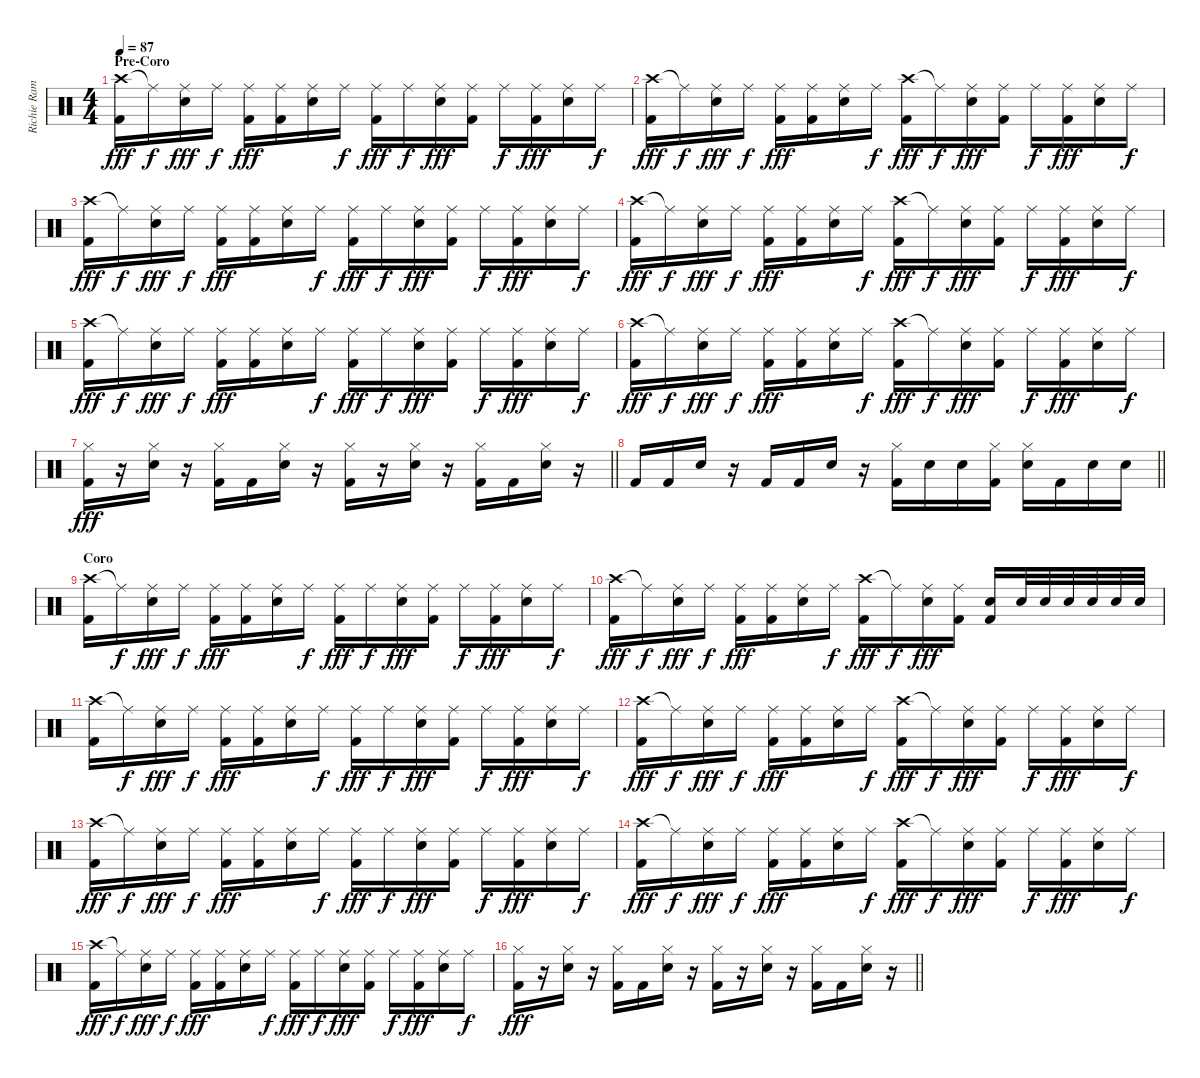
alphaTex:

\track ("Richie Ramone " "Richie Ram") {instrument percussion}
\staff {score}
\articulation defaults
\ts (4 4)
\section ("" "Pre-Coro")
\tempo 87
\clef neutral
\ks c
("Crash high (hit)" "Kick (hit) 2").16{dy fff} "Ride (middle)"{t}.16{dy f} ("Ride (middle)" "Electric Snare (hit)").16{dy fff} "Ride (middle)".16{dy f} ("Ride (middle)" "Kick (hit) 2").16{dy fff} ("Ride (middle)" "Kick (hit) 2").16 ("Ride (middle)" "Electric Snare (hit)").16 "Ride (middle)".16{dy f} ("Ride (middle)" "Kick (hit) 2").16{dy fff} "Ride (middle)".16{dy f} ("Ride (middle)" "Electric Snare (hit)").16{dy fff} ("Ride (middle)" "Kick (hit) 2").16 "Ride (middle)".16{dy f} ("Ride (middle)" "Kick (hit) 2").16{dy fff} ("Ride (middle)" "Electric Snare (hit)").16 "Ride (middle)".16{dy f} |
("Crash high (hit)" "Kick (hit) 2").16{dy fff} "Ride (middle)"{t}.16{dy f} ("Ride (middle)" "Electric Snare (hit)").16{dy fff} "Ride (middle)".16{dy f} ("Ride (middle)" "Kick (hit) 2").16{dy fff} ("Ride (middle)" "Kick (hit) 2").16 ("Ride (middle)" "Electric Snare (hit)").16 "Ride (middle)".16{dy f} ("Crash high (hit)" "Kick (hit) 2").16{dy fff} "Ride (middle)"{t}.16{dy f} ("Ride (middle)" "Electric Snare (hit)").16{dy fff} ("Ride (middle)" "Kick (hit) 2").16 "Ride (middle)".16{dy f} ("Ride (middle)" "Kick (hit) 2").16{dy fff} ("Ride (middle)" "Electric Snare (hit)").16 "Ride (middle)".16{dy f} |
("Crash high (hit)" "Kick (hit) 2").16{dy fff} "Ride (middle)"{t}.16{dy f} ("Ride (middle)" "Electric Snare (hit)").16{dy fff} "Ride (middle)".16{dy f} ("Ride (middle)" "Kick (hit) 2").16{dy fff} ("Ride (middle)" "Kick (hit) 2").16 ("Ride (middle)" "Electric Snare (hit)").16 "Ride (middle)".16{dy f} ("Ride (middle)" "Kick (hit) 2").16{dy fff} "Ride (middle)".16{dy f} ("Ride (middle)" "Electric Snare (hit)").16{dy fff} ("Ride (middle)" "Kick (hit) 2").16 "Ride (middle)".16{dy f} ("Ride (middle)" "Kick (hit) 2").16{dy fff} ("Ride (middle)" "Electric Snare (hit)").16 "Ride (middle)".16{dy f} |
("Crash high (hit)" "Kick (hit) 2").16{dy fff} "Ride (middle)"{t}.16{dy f} ("Ride (middle)" "Electric Snare (hit)").16{dy fff} "Ride (middle)".16{dy f} ("Ride (middle)" "Kick (hit) 2").16{dy fff} ("Ride (middle)" "Kick (hit) 2").16 ("Ride (middle)" "Electric Snare (hit)").16 "Ride (middle)".16{dy f} ("Crash high (hit)" "Kick (hit) 2").16{dy fff} "Ride (middle)"{t}.16{dy f} ("Ride (middle)" "Electric Snare (hit)").16{dy fff} ("Ride (middle)" "Kick (hit) 2").16 "Ride (middle)".16{dy f} ("Ride (middle)" "Kick (hit) 2").16{dy fff} ("Ride (middle)" "Electric Snare (hit)").16 "Ride (middle)".16{dy f} |
("Crash high (hit)" "Kick (hit) 2").16{dy fff} "Ride (middle)"{t}.16{dy f} ("Ride (middle)" "Electric Snare (hit)").16{dy fff} "Ride (middle)".16{dy f} ("Ride (middle)" "Kick (hit) 2").16{dy fff} ("Ride (middle)" "Kick (hit) 2").16 ("Ride (middle)" "Electric Snare (hit)").16 "Ride (middle)".16{dy f} ("Ride (middle)" "Kick (hit) 2").16{dy fff} "Ride (middle)".16{dy f} ("Ride (middle)" "Electric Snare (hit)").16{dy fff} ("Ride (middle)" "Kick (hit) 2").16 "Ride (middle)".16{dy f} ("Ride (middle)" "Kick (hit) 2").16{dy fff} ("Ride (middle)" "Electric Snare (hit)").16 "Ride (middle)".16{dy f} |
("Crash high (hit)" "Kick (hit) 2").16{dy fff} "Ride (middle)"{t}.16{dy f} ("Ride (middle)" "Electric Snare (hit)").16{dy fff} "Ride (middle)".16{dy f} ("Ride (middle)" "Kick (hit) 2").16{dy fff} ("Ride (middle)" "Kick (hit) 2").16 ("Ride (middle)" "Electric Snare (hit)").16 "Ride (middle)".16{dy f} ("Crash high (hit)" "Kick (hit) 2").16{dy fff} "Ride (middle)"{t}.16{dy f} ("Ride (middle)" "Electric Snare (hit)").16{dy fff} ("Ride (middle)" "Kick (hit) 2").16 "Ride (middle)".16{dy f} ("Ride (middle)" "Kick (hit) 2").16{dy fff} ("Ride (middle)" "Electric Snare (hit)").16 "Ride (middle)".16{dy f} |
\barLineRight lightlight
("Hi-Hat (closed)" "Kick (hit) 2").16{dy fff} r.16 ("Hi-Hat (closed)" "Electric Snare (hit)").16 r.16 ("Hi-Hat (closed)" "Kick (hit) 2").16 "Kick (hit) 2".16 ("Hi-Hat (closed)" "Electric Snare (hit)").16 r.16 ("Hi-Hat (closed)" "Kick (hit) 2").16 r.16 ("Hi-Hat (closed)" "Electric Snare (hit)").16 r.16 ("Hi-Hat (closed)" "Kick (hit) 2").16 "Kick (hit) 2".16 ("Hi-Hat (closed)" "Electric Snare (hit)").16 r.16 |
\barLineRight lightlight "Kick (hit) 2".16 "Kick (hit) 2".16 "Electric Snare (hit)".16
r.16 "Kick (hit) 2".16 "Kick (hit) 2".16 "Electric Snare (hit)".16 r.16 ("Hi-Hat (closed)" "Kick (hit) 2").16 "Electric Snare (hit)".16 "Electric Snare (hit)".16 ("Hi-Hat (closed)" "Kick (hit) 2").16 ("Hi-Hat (closed)" "Electric Snare (hit)").16 "Kick (hit) 2".16 "Electric Snare (hit)".16 "Electric Snare (hit)".16 |
\section ("" "Coro")
("Crash high (hit)" "Kick (hit) 2").16 "Ride (middle)"{t}.16{dy f} ("Ride (middle)" "Electric Snare (hit)").16{dy fff} "Ride (middle)".16{dy f} ("Ride (middle)" "Kick (hit) 2").16{dy fff} ("Ride (middle)" "Kick (hit) 2").16 ("Ride (middle)" "Electric Snare (hit)").16 "Ride (middle)".16{dy f} ("Ride (middle)" "Kick (hit) 2").16{dy fff} "Ride (middle)".16{dy f} ("Ride (middle)" "Electric Snare (hit)").16{dy fff} ("Ride (middle)" "Kick (hit) 2").16 "Ride (middle)".16{dy f} ("Ride (middle)" "Kick (hit) 2").16{dy fff} ("Ride (middle)" "Electric Snare (hit)").16 "Ride (middle)".16{dy f} |
("Crash high (hit)" "Kick (hit) 2").16{dy fff} "Ride (middle)"{t}.16{dy f} ("Ride (middle)" "Electric Snare (hit)").16{dy fff} "Ride (middle)".16{dy f} ("Ride (middle)" "Kick (hit) 2").16{dy fff} ("Ride (middle)" "Kick (hit) 2").16 ("Ride (middle)" "Electric Snare (hit)").16 "Ride (middle)".16{dy f} ("Crash high (hit)" "Kick (hit) 2").16{dy fff} "Ride (middle)"{t}.16{dy f} ("Ride (middle)" "Electric Snare (hit)").16{dy fff} ("Ride (middle)" "Kick (hit) 2").16 ("Electric Snare (hit)" "Kick (hit) 2").16 "Electric Snare (hit)".32 "Electric Snare (hit)".32 "Electric Snare (hit)".32 "Electric Snare (hit)".32 "Electric Snare (hit)".32 "Electric Snare (hit)".32 |
("Crash high (hit)" "Kick (hit) 2").16 "Ride (middle)"{t}.16{dy f} ("Ride (middle)" "Electric Snare (hit)").16{dy fff} "Ride (middle)".16{dy f} ("Ride (middle)" "Kick (hit) 2").16{dy fff} ("Ride (middle)" "Kick (hit) 2").16 ("Ride (middle)" "Electric Snare (hit)").16 "Ride (middle)".16{dy f} ("Ride (middle)" "Kick (hit) 2").16{dy fff} "Ride (middle)".16{dy f} ("Ride (middle)" "Electric Snare (hit)").16{dy fff} ("Ride (middle)" "Kick (hit) 2").16 "Ride (middle)".16{dy f} ("Ride (middle)" "Kick (hit) 2").16{dy fff} ("Ride (middle)" "Electric Snare (hit)").16 "Ride (middle)".16{dy f} |
("Crash high (hit)" "Kick (hit) 2").16{dy fff} "Ride (middle)"{t}.16{dy f} ("Ride (middle)" "Electric Snare (hit)").16{dy fff} "Ride (middle)".16{dy f} ("Ride (middle)" "Kick (hit) 2").16{dy fff} ("Ride (middle)" "Kick (hit) 2").16 ("Ride (middle)" "Electric Snare (hit)").16 "Ride (middle)".16{dy f} ("Crash high (hit)" "Kick (hit) 2").16{dy fff} "Ride (middle)"{t}.16{dy f} ("Ride (middle)" "Electric Snare (hit)").16{dy fff} ("Ride (middle)" "Kick (hit) 2").16 "Ride (middle)".16{dy f} ("Ride (middle)" "Kick (hit) 2").16{dy fff} ("Ride (middle)" "Electric Snare (hit)").16 "Ride (middle)".16{dy f} |
("Crash high (hit)" "Kick (hit) 2").16{dy fff} "Ride (middle)"{t}.16{dy f} ("Ride (middle)" "Electric Snare (hit)").16{dy fff} "Ride (middle)".16{dy f} ("Ride (middle)" "Kick (hit) 2").16{dy fff} ("Ride (middle)" "Kick (hit) 2").16 ("Ride (middle)" "Electric Snare (hit)").16 "Ride (middle)".16{dy f} ("Ride (middle)" "Kick (hit) 2").16{dy fff} "Ride (middle)".16{dy f} ("Ride (middle)" "Electric Snare (hit)").16{dy fff} ("Ride (middle)" "Kick (hit) 2").16 "Ride (middle)".16{dy f} ("Ride (middle)" "Kick (hit) 2").16{dy fff} ("Ride (middle)" "Electric Snare (hit)").16 "Ride (middle)".16{dy f} |
("Crash high (hit)" "Kick (hit) 2").16{dy fff} "Ride (middle)"{t}.16{dy f} ("Ride (middle)" "Electric Snare (hit)").16{dy fff} "Ride (middle)".16{dy f} ("Ride (middle)" "Kick (hit) 2").16{dy fff} ("Ride (middle)" "Kick (hit) 2").16 ("Ride (middle)" "Electric Snare (hit)").16 "Ride (middle)".16{dy f} ("Crash high (hit)" "Kick (hit) 2").16{dy fff} "Ride (middle)"{t}.16{dy f} ("Ride (middle)" "Electric Snare (hit)").16{dy fff} ("Ride (middle)" "Kick (hit) 2").16 "Ride (middle)".16{dy f} ("Ride (middle)" "Kick (hit) 2").16{dy fff} ("Ride (middle)" "Electric Snare (hit)").16 "Ride (middle)".16{dy f} |
("Crash high (hit)" "Kick (hit) 2").16{dy fff} "Ride (middle)"{t}.16{dy f} ("Ride (middle)" "Electric Snare (hit)").16{dy fff} "Ride (middle)".16{dy f} ("Ride (middle)" "Kick (hit) 2").16{dy fff} ("Ride (middle)" "Kick (hit) 2").16 ("Ride (middle)" "Electric Snare (hit)").16 "Ride (middle)".16{dy f} ("Ride (middle)" "Kick (hit) 2").16{dy fff} "Ride (middle)".16{dy f} ("Ride (middle)" "Electric Snare (hit)").16{dy fff} ("Ride (middle)" "Kick (hit) 2").16 "Ride (middle)".16{dy f} ("Ride (middle)" "Kick (hit) 2").16{dy fff} ("Ride (middle)" "Electric Snare (hit)").16 "Ride (middle)".16{dy f} |
\barLineRight lightlight
("Hi-Hat (closed)" "Kick (hit) 2").16{dy fff} r.16 ("Hi-Hat (closed)" "Electric Snare (hit)").16 r.16 ("Hi-Hat (closed)" "Kick (hit) 2").16 "Kick (hit) 2".16 ("Hi-Hat (closed)" "Electric Snare (hit)").16 r.16 ("Hi-Hat (closed)" "Kick (hit) 2").16 r.16 ("Hi-Hat (closed)" "Electric Snare (hit)").16 r.16 ("Hi-Hat (closed)" "Kick (hit) 2").16 "Kick (hit) 2".16 ("Hi-Hat (closed)" "Electric Snare (hit)").16 r.16
